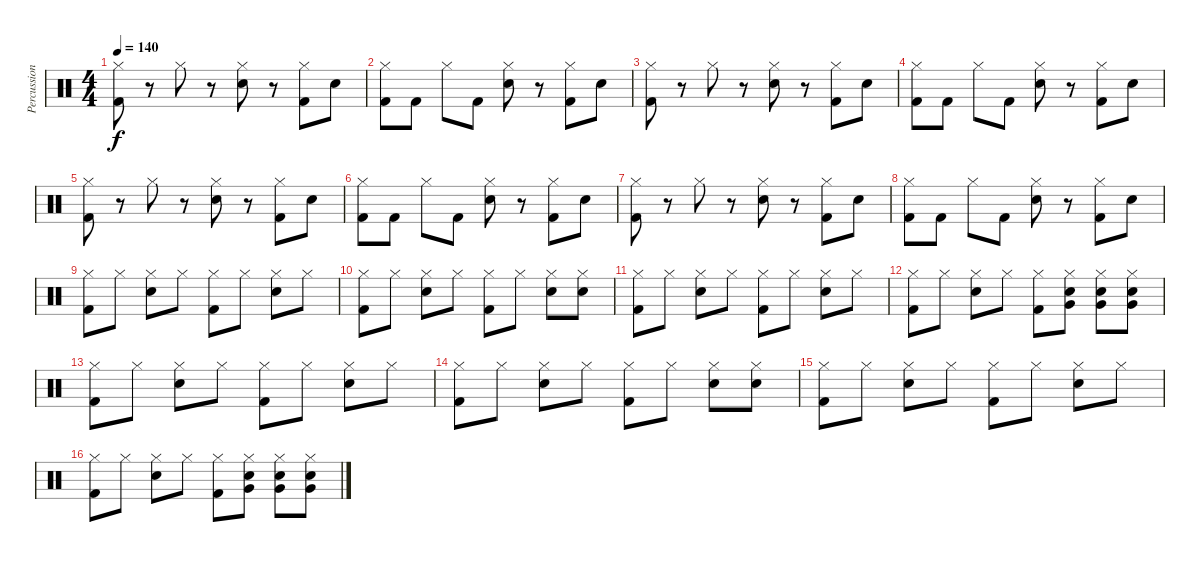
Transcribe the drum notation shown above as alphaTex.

\track ("Percussion" "Percussion") {instrument percussion}
\staff {score}
\articulation defaults
\ts (4 4)
\tempo 140
\clef neutral
\ks c
("Hi-Hat (closed)" "Kick (hit) 2").8{dy f} r.8 "Hi-Hat (closed)".8 r.8 ("Hi-Hat (closed)" "Snare (hit) 2").8 r.8 ("Hi-Hat (closed)" "Kick (hit) 2").8 "Snare (hit) 2".8 |
("Hi-Hat (closed)" "Kick (hit) 2").8 "Kick (hit) 2".8 "Hi-Hat (closed)".8 "Kick (hit) 2".8 ("Hi-Hat (closed)" "Snare (hit) 2").8 r.8 ("Hi-Hat (closed)" "Kick (hit) 2").8 "Snare (hit) 2".8 |
("Hi-Hat (closed)" "Kick (hit) 2").8 r.8 "Hi-Hat (closed)".8 r.8 ("Hi-Hat (closed)" "Snare (hit) 2").8 r.8 ("Hi-Hat (closed)" "Kick (hit) 2").8 "Snare (hit) 2".8 |
("Hi-Hat (closed)" "Kick (hit) 2").8 "Kick (hit) 2".8 "Hi-Hat (closed)".8 "Kick (hit) 2".8 ("Hi-Hat (closed)" "Snare (hit) 2").8 r.8 ("Hi-Hat (closed)" "Kick (hit) 2").8 "Snare (hit) 2".8 |
("Hi-Hat (closed)" "Kick (hit) 2").8 r.8 "Hi-Hat (closed)".8 r.8 ("Hi-Hat (closed)" "Snare (hit) 2").8 r.8 ("Hi-Hat (closed)" "Kick (hit) 2").8 "Snare (hit) 2".8 |
("Hi-Hat (closed)" "Kick (hit) 2").8 "Kick (hit) 2".8 "Hi-Hat (closed)".8 "Kick (hit) 2".8 ("Hi-Hat (closed)" "Snare (hit) 2").8 r.8 ("Hi-Hat (closed)" "Kick (hit) 2").8 "Snare (hit) 2".8 |
("Hi-Hat (closed)" "Kick (hit) 2").8 r.8 "Hi-Hat (closed)".8 r.8 ("Hi-Hat (closed)" "Snare (hit) 2").8 r.8 ("Hi-Hat (closed)" "Kick (hit) 2").8 "Snare (hit) 2".8 |
("Hi-Hat (closed)" "Kick (hit) 2").8 "Kick (hit) 2".8 "Hi-Hat (closed)".8 "Kick (hit) 2".8 ("Hi-Hat (closed)" "Snare (hit) 2").8 r.8 ("Hi-Hat (closed)" "Kick (hit) 2").8 "Snare (hit) 2".8 |
("Hi-Hat (closed)" "Kick (hit) 2").8 "Hi-Hat (closed)".8 ("Hi-Hat (closed)" "Snare (hit) 2").8 "Hi-Hat (closed)".8 ("Hi-Hat (closed)" "Kick (hit) 2").8 "Hi-Hat (closed)".8 ("Hi-Hat (closed)" "Snare (hit) 2").8 "Hi-Hat (closed)".8 |
("Hi-Hat (closed)" "Kick (hit) 2").8 "Hi-Hat (closed)".8 ("Hi-Hat (closed)" "Snare (hit) 2").8 "Hi-Hat (closed)".8 ("Hi-Hat (closed)" "Kick (hit) 2").8 "Hi-Hat (closed)".8 ("Hi-Hat (closed)" "Snare (hit) 2").8 ("Hi-Hat (closed)" "Snare (hit) 2").8 |
("Hi-Hat (closed)" "Kick (hit) 2").8 "Hi-Hat (closed)".8 ("Hi-Hat (closed)" "Snare (hit) 2").8 "Hi-Hat (closed)".8 ("Hi-Hat (closed)" "Kick (hit) 2").8 "Hi-Hat (closed)".8 ("Hi-Hat (closed)" "Snare (hit) 2").8 "Hi-Hat (closed)".8 |
("Hi-Hat (closed)" "Kick (hit) 2").8 "Hi-Hat (closed)".8 ("Hi-Hat (closed)" "Snare (hit) 2").8 "Hi-Hat (closed)".8 ("Hi-Hat (closed)" "Kick (hit) 2").8 ("Hi-Hat (closed)" "Snare (hit) 2" "Very Low Tom (hit)").8 ("Hi-Hat (closed)" "Snare (hit) 2" "Very Low Tom (hit)").8 ("Hi-Hat (closed)" "Snare (hit) 2" "Very Low Tom (hit)").8 |
("Hi-Hat (closed)" "Kick (hit) 2").8 "Hi-Hat (closed)".8 ("Hi-Hat (closed)" "Snare (hit) 2").8 "Hi-Hat (closed)".8 ("Hi-Hat (closed)" "Kick (hit) 2").8 "Hi-Hat (closed)".8 ("Hi-Hat (closed)" "Snare (hit) 2").8 "Hi-Hat (closed)".8 |
("Hi-Hat (closed)" "Kick (hit) 2").8 "Hi-Hat (closed)".8 ("Hi-Hat (closed)" "Snare (hit) 2").8 "Hi-Hat (closed)".8 ("Hi-Hat (closed)" "Kick (hit) 2").8 "Hi-Hat (closed)".8 ("Hi-Hat (closed)" "Snare (hit) 2").8 ("Hi-Hat (closed)" "Snare (hit) 2").8 |
("Hi-Hat (closed)" "Kick (hit) 2").8 "Hi-Hat (closed)".8 ("Hi-Hat (closed)" "Snare (hit) 2").8 "Hi-Hat (closed)".8 ("Hi-Hat (closed)" "Kick (hit) 2").8 "Hi-Hat (closed)".8 ("Hi-Hat (closed)" "Snare (hit) 2").8 "Hi-Hat (closed)".8 |
("Hi-Hat (closed)" "Kick (hit) 2").8 "Hi-Hat (closed)".8 ("Hi-Hat (closed)" "Snare (hit) 2").8 "Hi-Hat (closed)".8 ("Hi-Hat (closed)" "Kick (hit) 2").8 ("Hi-Hat (closed)" "Snare (hit) 2" "Very Low Tom (hit)").8 ("Hi-Hat (closed)" "Snare (hit) 2" "Very Low Tom (hit)").8 ("Hi-Hat (closed)" "Snare (hit) 2" "Very Low Tom (hit)").8
